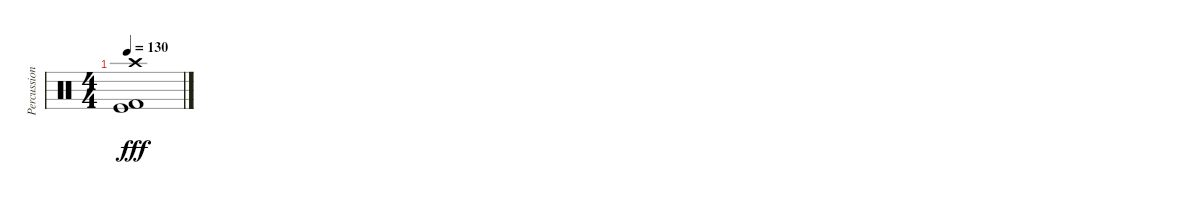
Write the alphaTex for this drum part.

\track ("Percussions" "Percussion") {instrument percussion}
\staff {score}
\articulation defaults
\ts (4 4)
\tempo 130
\clef neutral
\ks c
("Crash high (hit)" "Kick (hit)" "Kick (hit) 2").1{dy fff}
